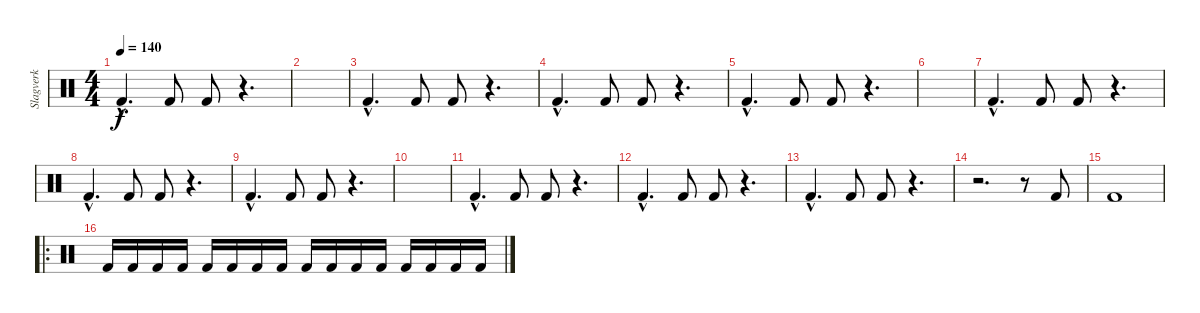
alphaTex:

\track ("Slagverk" "Slagverk") {instrument percussion}
\staff {score}
\articulation defaults
\ts (4 4)
\tempo 140
\clef neutral
\ks c "Kick (hit) 2"{hac}.4{d dy f} "Kick (hit) 2".8 "Kick (hit) 2".8
r.4{d} |
|
"Kick (hit) 2"{hac}.4{d} "Kick (hit) 2".8 "Kick (hit) 2".8 r.4{d} |
"Kick (hit) 2"{hac}.4{d} "Kick (hit) 2".8 "Kick (hit) 2".8 r.4{d} |
"Kick (hit) 2"{hac}.4{d} "Kick (hit) 2".8 "Kick (hit) 2".8 r.4{d} |
|
"Kick (hit) 2"{hac}.4{d} "Kick (hit) 2".8 "Kick (hit) 2".8 r.4{d} |
"Kick (hit) 2"{hac}.4{d} "Kick (hit) 2".8 "Kick (hit) 2".8 r.4{d} |
"Kick (hit) 2"{hac}.4{d} "Kick (hit) 2".8 "Kick (hit) 2".8 r.4{d} |
|
"Kick (hit) 2"{hac}.4{d} "Kick (hit) 2".8 "Kick (hit) 2".8 r.4{d} |
"Kick (hit) 2"{hac}.4{d} "Kick (hit) 2".8 "Kick (hit) 2".8 r.4{d} |
"Kick (hit) 2"{hac}.4{d} "Kick (hit) 2".8 "Kick (hit) 2".8 r.4{d} |
r.2{d} r.8 "Kick (hit) 2".8 |
"Kick (hit) 2".1 |
\ro "Kick (hit) 2".16 "Kick (hit) 2".16 "Kick (hit) 2".16 "Kick (hit) 2".16 "Kick (hit) 2".16 "Kick (hit) 2".16 "Kick (hit) 2".16 "Kick (hit) 2".16 "Kick (hit) 2".16 "Kick (hit) 2".16 "Kick (hit) 2".16 "Kick (hit) 2".16 "Kick (hit) 2".16 "Kick (hit) 2".16 "Kick (hit) 2".16 "Kick (hit) 2".16
